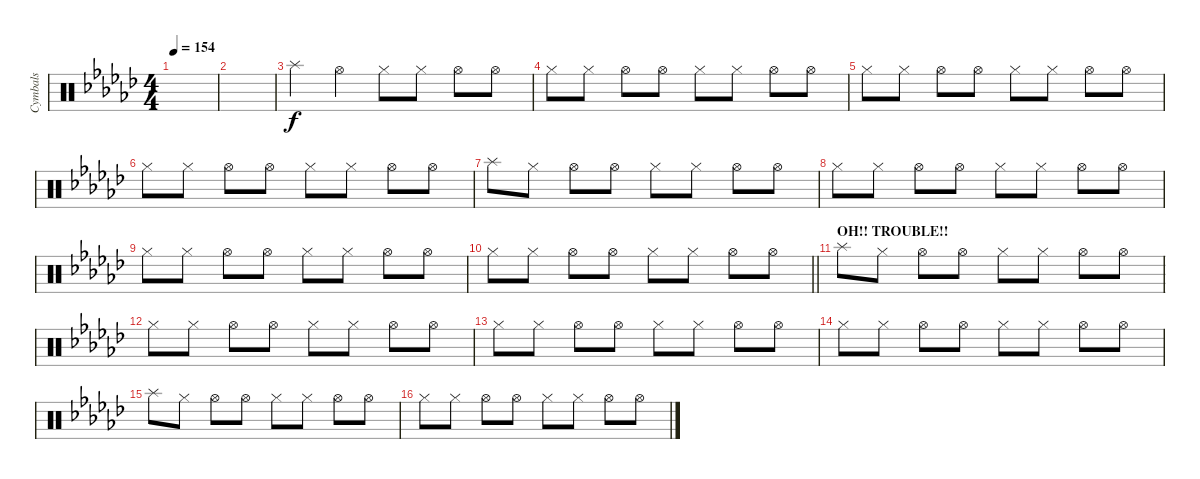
\track ("Cymbals" "Cymbals") {instrument percussion}
\staff {score}
\articulation defaults
\ts (4 4)
\tempo 154
\clef neutral
\ks gb
|
|
"Splash (hit)".4 "Hi-Hat (open)".4 "Hi-Hat (closed)".8 "Hi-Hat (closed)".8 "Hi-Hat (open)".8 "Hi-Hat (open)".8 |
"Hi-Hat (closed)".8 "Hi-Hat (closed)".8 "Hi-Hat (open)".8 "Hi-Hat (open)".8 "Hi-Hat (closed)".8 "Hi-Hat (closed)".8 "Hi-Hat (open)".8 "Hi-Hat (open)".8 |
"Hi-Hat (closed)".8 "Hi-Hat (closed)".8 "Hi-Hat (open)".8 "Hi-Hat (open)".8 "Hi-Hat (closed)".8 "Hi-Hat (closed)".8 "Hi-Hat (open)".8 "Hi-Hat (open)".8 |
"Hi-Hat (closed)".8 "Hi-Hat (closed)".8 "Hi-Hat (open)".8 "Hi-Hat (open)".8 "Hi-Hat (closed)".8 "Hi-Hat (closed)".8 "Hi-Hat (open)".8 "Hi-Hat (open)".8 |
"Splash (hit)".8 "Hi-Hat (closed)".8 "Hi-Hat (open)".8 "Hi-Hat (open)".8 "Hi-Hat (closed)".8 "Hi-Hat (closed)".8 "Hi-Hat (open)".8 "Hi-Hat (open)".8 |
"Hi-Hat (closed)".8 "Hi-Hat (closed)".8 "Hi-Hat (open)".8 "Hi-Hat (open)".8 "Hi-Hat (closed)".8 "Hi-Hat (closed)".8 "Hi-Hat (open)".8 "Hi-Hat (open)".8 |
"Hi-Hat (closed)".8 "Hi-Hat (closed)".8 "Hi-Hat (open)".8 "Hi-Hat (open)".8 "Hi-Hat (closed)".8 "Hi-Hat (closed)".8 "Hi-Hat (open)".8 "Hi-Hat (open)".8 |
\barLineRight lightlight "Hi-Hat (closed)".8 "Hi-Hat (closed)".8 "Hi-Hat (open)".8 "Hi-Hat (open)".8 "Hi-Hat (closed)".8 "Hi-Hat (closed)".8 "Hi-Hat (open)".8 "Hi-Hat (open)".8
|
\section ("" "OH!! TROUBLE!!")
"Splash (hit)".8 "Hi-Hat (closed)".8 "Hi-Hat (open)".8 "Hi-Hat (open)".8 "Hi-Hat (closed)".8 "Hi-Hat (closed)".8 "Hi-Hat (open)".8 "Hi-Hat (open)".8 |
"Hi-Hat (closed)".8 "Hi-Hat (closed)".8 "Hi-Hat (open)".8 "Hi-Hat (open)".8 "Hi-Hat (closed)".8 "Hi-Hat (closed)".8 "Hi-Hat (open)".8 "Hi-Hat (open)".8 |
"Hi-Hat (closed)".8 "Hi-Hat (closed)".8 "Hi-Hat (open)".8 "Hi-Hat (open)".8 "Hi-Hat (closed)".8 "Hi-Hat (closed)".8 "Hi-Hat (open)".8 "Hi-Hat (open)".8 |
"Hi-Hat (closed)".8 "Hi-Hat (closed)".8 "Hi-Hat (open)".8 "Hi-Hat (open)".8 "Hi-Hat (closed)".8 "Hi-Hat (closed)".8 "Hi-Hat (open)".8 "Hi-Hat (open)".8 |
"Splash (hit)".8 "Hi-Hat (closed)".8 "Hi-Hat (open)".8 "Hi-Hat (open)".8 "Hi-Hat (closed)".8 "Hi-Hat (closed)".8 "Hi-Hat (open)".8 "Hi-Hat (open)".8 |
"Hi-Hat (closed)".8 "Hi-Hat (closed)".8 "Hi-Hat (open)".8 "Hi-Hat (open)".8 "Hi-Hat (closed)".8 "Hi-Hat (closed)".8 "Hi-Hat (open)".8 "Hi-Hat (open)".8
